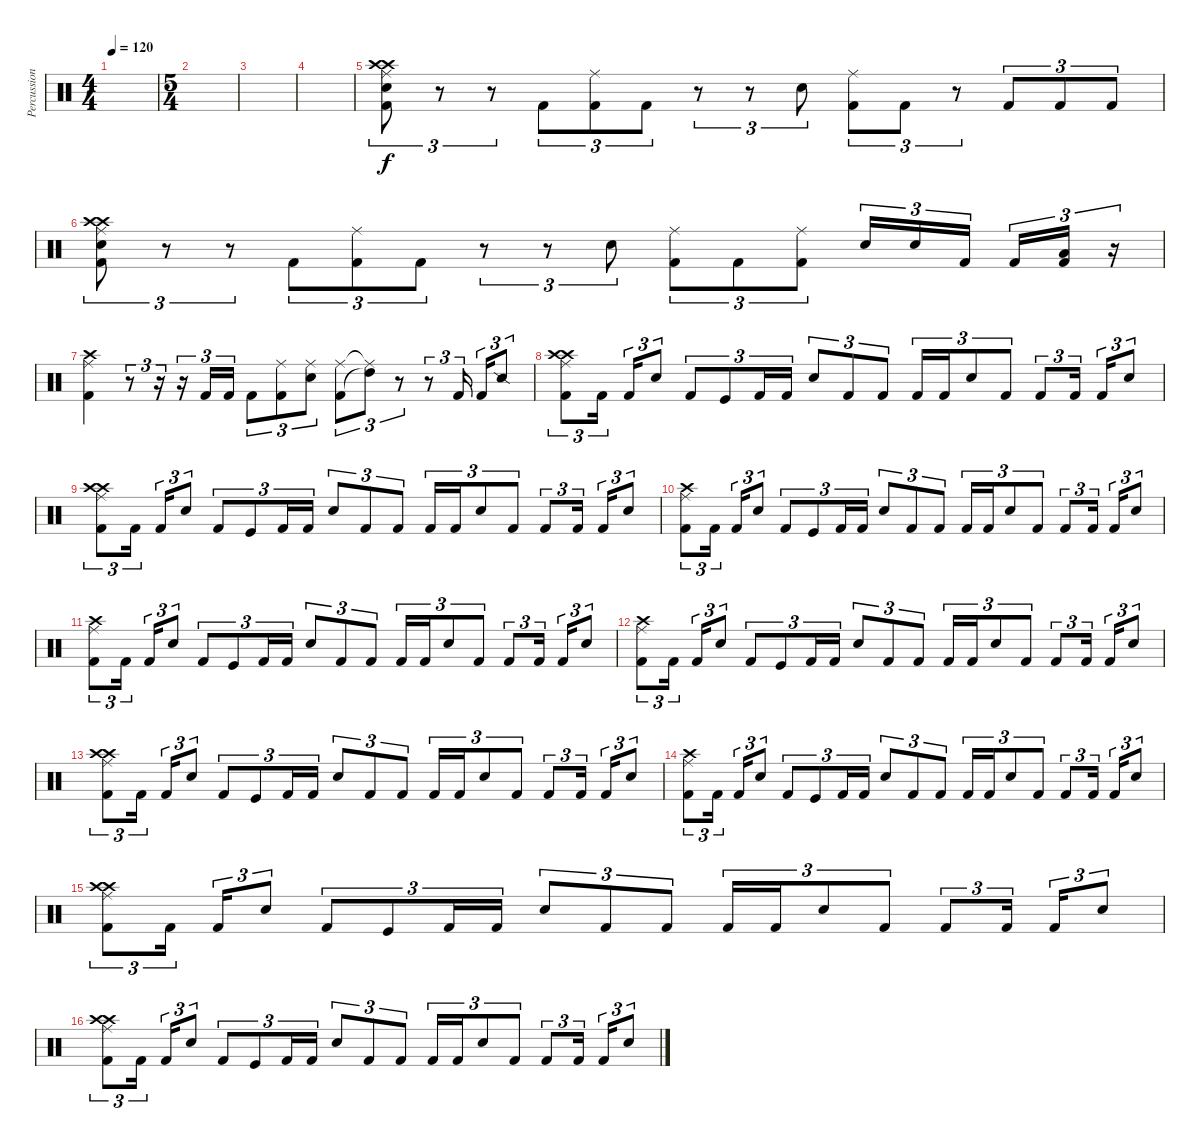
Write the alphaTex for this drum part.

\track ("Percussioni" "Percussion") {instrument percussion}
\staff {score}
\articulation defaults
\ts (4 4)
\tempo 120
\clef neutral
\ks c
|
\ts (5 4)
|
|
|
("Crash high (hit)" "Crash high (hit)" "Ride (middle)" "Kick (hit) 2" "Electric Snare (hit)").8{tu (3 2)} r.8{tu (3 2)} r.8{tu (3 2)} "Kick (hit) 2".8{tu (3 2)} ("Ride (middle)" "Kick (hit) 2").8{tu (3 2)} "Kick (hit) 2".8{tu (3 2)} r.8{tu (3 2)} r.8{tu (3 2)} "Electric Snare (hit)".8{tu (3 2)} ("Ride (middle)" "Kick (hit) 2").8{tu (3 2)} "Kick (hit) 2".8{tu (3 2)} r.8{tu (3 2)} "Kick (hit) 2".8{tu (3 2)} "Kick (hit) 2".8{tu (3 2)} "Kick (hit) 2".8{tu (3 2)} |
("Crash high (hit)" "Crash high (hit)" "Ride (middle)" "Kick (hit) 2" "Electric Snare (hit)").8{tu (3 2)} r.8{tu (3 2)} r.8{tu (3 2)} "Kick (hit) 2".8{tu (3 2)} ("Ride (middle)" "Kick (hit) 2").8{tu (3 2)} "Kick (hit) 2".8{tu (3 2)} r.8{tu (3 2)} r.8{tu (3 2)} "Electric Snare (hit)".8{tu (3 2)} ("Ride (middle)" "Kick (hit) 2").8{tu (3 2)} "Kick (hit) 2".8{tu (3 2)} ("Ride (middle)" "Kick (hit) 2").8{tu (3 2)} "Electric Snare (hit)".16{tu (3 2)} "Electric Snare (hit)".16{tu (3 2)} "Kick (hit) 2".16{tu (3 2)} "Kick (hit) 2".16{tu (3 2)} ("Low Tom (hit)" "Kick (hit) 2").16{tu (3 2)} r.16{tu (3 2)} |
("Crash high (hit)" "Ride (middle)" "Kick (hit) 2").4 r.8{tu (3 2)} r.16{tu (3 2)} r.16{tu (3 2)} "Kick (hit) 2".16{tu (3 2)} "Kick (hit) 2".16{tu (3 2)} "Kick (hit) 2".8{tu (3 2)} ("Ride (middle)" "Kick (hit) 2").8{tu (3 2)} ("Ride (middle)" "Electric Snare (hit)").8{tu (3 2)} ("Ride (middle)" "Kick (hit) 2").8{tu (3 2)} ("Ride (middle)"{t} "High Tom (hit)"{t}).8{tu (3 2)} r.8{tu (3 2)} r.8{tu (3 2)} "Kick (hit) 2".16{tu (3 2)} "Kick (hit) 2".16{tu (3 2)} "Snare (side stick) 2".8{tu (3 2)} |
("Crash high (hit)" "Crash high (hit)" "Ride (middle)" "Kick (hit) 2").8{tu (3 2)} "Kick (hit) 2".16{tu (3 2)} "Kick (hit) 2".16{tu (3 2)} "Electric Snare (hit)".8{tu (3 2)} "Kick (hit) 2".8{tu (3 2)} "Kick (hit)".8{tu (3 2)} "Kick (hit) 2".16{tu (3 2)} "Kick (hit) 2".16{tu (3 2)} "Electric Snare (hit)".8{tu (3 2)} "Kick (hit) 2".8{tu (3 2)} "Kick (hit) 2".8{tu (3 2)} "Kick (hit) 2".16{tu (3 2)} "Kick (hit) 2".16{tu (3 2)} "Electric Snare (hit)".8{tu (3 2)} "Kick (hit) 2".8{tu (3 2)} "Kick (hit) 2".8{tu (3 2)} "Kick (hit) 2".16{tu (3 2)} "Kick (hit) 2".16{tu (3 2)} "Electric Snare (hit)".8{tu (3 2)} |
("Crash high (hit)" "Crash high (hit)" "Ride (middle)" "Kick (hit) 2").8{tu (3 2)} "Kick (hit) 2".16{tu (3 2)} "Kick (hit) 2".16{tu (3 2)} "Electric Snare (hit)".8{tu (3 2)} "Kick (hit) 2".8{tu (3 2)} "Kick (hit)".8{tu (3 2)} "Kick (hit) 2".16{tu (3 2)} "Kick (hit) 2".16{tu (3 2)} "Electric Snare (hit)".8{tu (3 2)} "Kick (hit) 2".8{tu (3 2)} "Kick (hit) 2".8{tu (3 2)} "Kick (hit) 2".16{tu (3 2)} "Kick (hit) 2".16{tu (3 2)} "Electric Snare (hit)".8{tu (3 2)} "Kick (hit) 2".8{tu (3 2)} "Kick (hit) 2".8{tu (3 2)} "Kick (hit) 2".16{tu (3 2)} "Kick (hit) 2".16{tu (3 2)} "Electric Snare (hit)".8{tu (3 2)} |
("Crash high (hit)" "Ride (middle)" "Kick (hit) 2").8{tu (3 2)} "Kick (hit) 2".16{tu (3 2)} "Kick (hit) 2".16{tu (3 2)} "Electric Snare (hit)".8{tu (3 2)} "Kick (hit) 2".8{tu (3 2)} "Kick (hit)".8{tu (3 2)} "Kick (hit) 2".16{tu (3 2)} "Kick (hit) 2".16{tu (3 2)} "Electric Snare (hit)".8{tu (3 2)} "Kick (hit) 2".8{tu (3 2)} "Kick (hit) 2".8{tu (3 2)} "Kick (hit) 2".16{tu (3 2)} "Kick (hit) 2".16{tu (3 2)} "Electric Snare (hit)".8{tu (3 2)} "Kick (hit) 2".8{tu (3 2)} "Kick (hit) 2".8{tu (3 2)} "Kick (hit) 2".16{tu (3 2)} "Kick (hit) 2".16{tu (3 2)} "Electric Snare (hit)".8{tu (3 2)} |
("Crash high (hit)" "Ride (middle)" "Kick (hit) 2").8{tu (3 2)} "Kick (hit) 2".16{tu (3 2)} "Kick (hit) 2".16{tu (3 2)} "Electric Snare (hit)".8{tu (3 2)} "Kick (hit) 2".8{tu (3 2)} "Kick (hit)".8{tu (3 2)} "Kick (hit) 2".16{tu (3 2)} "Kick (hit) 2".16{tu (3 2)} "Electric Snare (hit)".8{tu (3 2)} "Kick (hit) 2".8{tu (3 2)} "Kick (hit) 2".8{tu (3 2)} "Kick (hit) 2".16{tu (3 2)} "Kick (hit) 2".16{tu (3 2)} "Electric Snare (hit)".8{tu (3 2)} "Kick (hit) 2".8{tu (3 2)} "Kick (hit) 2".8{tu (3 2)} "Kick (hit) 2".16{tu (3 2)} "Kick (hit) 2".16{tu (3 2)} "Electric Snare (hit)".8{tu (3 2)} |
("Crash high (hit)" "Ride (middle)" "Kick (hit) 2").8{tu (3 2)} "Kick (hit) 2".16{tu (3 2)} "Kick (hit) 2".16{tu (3 2)} "Electric Snare (hit)".8{tu (3 2)} "Kick (hit) 2".8{tu (3 2)} "Kick (hit)".8{tu (3 2)} "Kick (hit) 2".16{tu (3 2)} "Kick (hit) 2".16{tu (3 2)} "Electric Snare (hit)".8{tu (3 2)} "Kick (hit) 2".8{tu (3 2)} "Kick (hit) 2".8{tu (3 2)} "Kick (hit) 2".16{tu (3 2)} "Kick (hit) 2".16{tu (3 2)} "Electric Snare (hit)".8{tu (3 2)} "Kick (hit) 2".8{tu (3 2)} "Kick (hit) 2".8{tu (3 2)} "Kick (hit) 2".16{tu (3 2)} "Kick (hit) 2".16{tu (3 2)} "Electric Snare (hit)".8{tu (3 2)} |
("Crash high (hit)" "Crash high (hit)" "Ride (middle)" "Kick (hit) 2").8{tu (3 2)} "Kick (hit) 2".16{tu (3 2)} "Kick (hit) 2".16{tu (3 2)} "Electric Snare (hit)".8{tu (3 2)} "Kick (hit) 2".8{tu (3 2)} "Kick (hit)".8{tu (3 2)} "Kick (hit) 2".16{tu (3 2)} "Kick (hit) 2".16{tu (3 2)} "Electric Snare (hit)".8{tu (3 2)} "Kick (hit) 2".8{tu (3 2)} "Kick (hit) 2".8{tu (3 2)} "Kick (hit) 2".16{tu (3 2)} "Kick (hit) 2".16{tu (3 2)} "Electric Snare (hit)".8{tu (3 2)} "Kick (hit) 2".8{tu (3 2)} "Kick (hit) 2".8{tu (3 2)} "Kick (hit) 2".16{tu (3 2)} "Kick (hit) 2".16{tu (3 2)} "Electric Snare (hit)".8{tu (3 2)} |
("Crash high (hit)" "Ride (middle)" "Kick (hit) 2").8{tu (3 2)} "Kick (hit) 2".16{tu (3 2)} "Kick (hit) 2".16{tu (3 2)} "Electric Snare (hit)".8{tu (3 2)} "Kick (hit) 2".8{tu (3 2)} "Kick (hit)".8{tu (3 2)} "Kick (hit) 2".16{tu (3 2)} "Kick (hit) 2".16{tu (3 2)} "Electric Snare (hit)".8{tu (3 2)} "Kick (hit) 2".8{tu (3 2)} "Kick (hit) 2".8{tu (3 2)} "Kick (hit) 2".16{tu (3 2)} "Kick (hit) 2".16{tu (3 2)} "Electric Snare (hit)".8{tu (3 2)} "Kick (hit) 2".8{tu (3 2)} "Kick (hit) 2".8{tu (3 2)} "Kick (hit) 2".16{tu (3 2)} "Kick (hit) 2".16{tu (3 2)} "Electric Snare (hit)".8{tu (3 2)} |
("Crash high (hit)" "Crash high (hit)" "Ride (middle)" "Kick (hit) 2").8{tu (3 2)} "Kick (hit) 2".16{tu (3 2)} "Kick (hit) 2".16{tu (3 2)} "Electric Snare (hit)".8{tu (3 2)} "Kick (hit) 2".8{tu (3 2)} "Kick (hit)".8{tu (3 2)} "Kick (hit) 2".16{tu (3 2)} "Kick (hit) 2".16{tu (3 2)} "Electric Snare (hit)".8{tu (3 2)} "Kick (hit) 2".8{tu (3 2)} "Kick (hit) 2".8{tu (3 2)} "Kick (hit) 2".16{tu (3 2)} "Kick (hit) 2".16{tu (3 2)} "Electric Snare (hit)".8{tu (3 2)} "Kick (hit) 2".8{tu (3 2)} "Kick (hit) 2".8{tu (3 2)} "Kick (hit) 2".16{tu (3 2)} "Kick (hit) 2".16{tu (3 2)} "Electric Snare (hit)".8{tu (3 2)} |
("Crash high (hit)" "Crash high (hit)" "Ride (middle)" "Kick (hit) 2").8{tu (3 2)} "Kick (hit) 2".16{tu (3 2)} "Kick (hit) 2".16{tu (3 2)} "Electric Snare (hit)".8{tu (3 2)} "Kick (hit) 2".8{tu (3 2)} "Kick (hit)".8{tu (3 2)} "Kick (hit) 2".16{tu (3 2)} "Kick (hit) 2".16{tu (3 2)} "Electric Snare (hit)".8{tu (3 2)} "Kick (hit) 2".8{tu (3 2)} "Kick (hit) 2".8{tu (3 2)} "Kick (hit) 2".16{tu (3 2)} "Kick (hit) 2".16{tu (3 2)} "Electric Snare (hit)".8{tu (3 2)} "Kick (hit) 2".8{tu (3 2)} "Kick (hit) 2".8{tu (3 2)} "Kick (hit) 2".16{tu (3 2)} "Kick (hit) 2".16{tu (3 2)} "Electric Snare (hit)".8{tu (3 2)}
